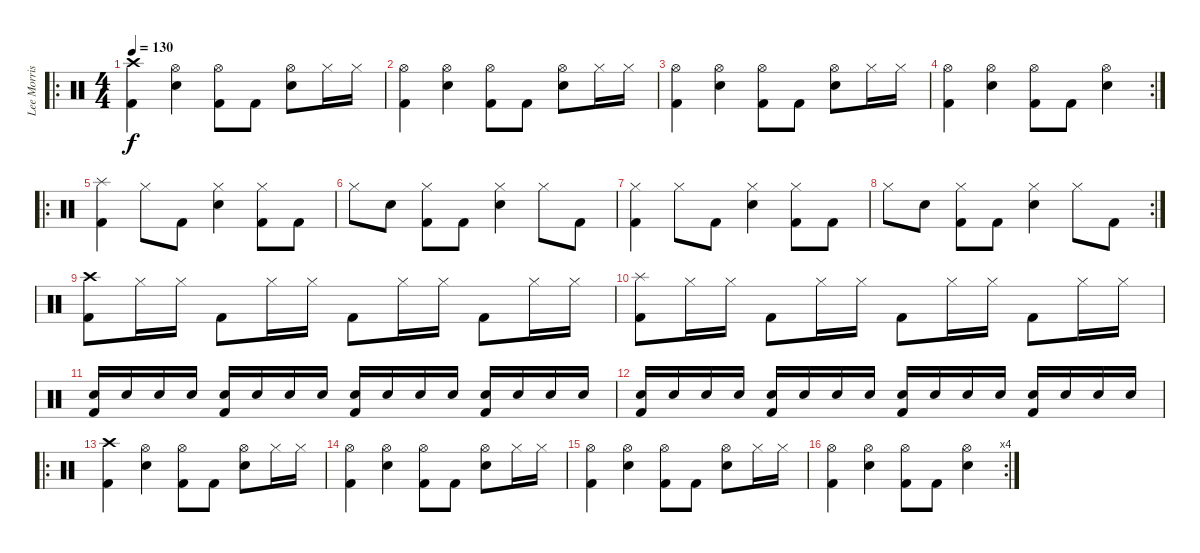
\track ("Lee Morris" "Lee Morris") {instrument percussion}
\staff {score}
\articulation defaults
\ro
\ts (4 4)
\tempo 130
\clef neutral
\ks c
("Crash high (hit)" "Kick (hit) 2").4{dy f} ("Hi-Hat (open)" "Electric Snare (hit)").4 ("Hi-Hat (open)" "Kick (hit) 2").8 "Kick (hit) 2".8 ("Hi-Hat (open)" "Electric Snare (hit)").8 "Hi-Hat (closed)".16 "Hi-Hat (closed)".16 |
("Hi-Hat (open)" "Kick (hit) 2").4 ("Hi-Hat (open)" "Electric Snare (hit)").4 ("Hi-Hat (open)" "Kick (hit) 2").8 "Kick (hit) 2".8 ("Hi-Hat (open)" "Electric Snare (hit)").8 "Hi-Hat (closed)".16 "Hi-Hat (closed)".16 |
("Hi-Hat (open)" "Kick (hit) 2").4 ("Hi-Hat (open)" "Electric Snare (hit)").4 ("Hi-Hat (open)" "Kick (hit) 2").8 "Kick (hit) 2".8 ("Hi-Hat (open)" "Electric Snare (hit)").8 "Hi-Hat (closed)".16 "Hi-Hat (closed)".16 |
\rc 2
("Hi-Hat (open)" "Kick (hit) 2").4 ("Hi-Hat (open)" "Electric Snare (hit)").4 ("Hi-Hat (open)" "Kick (hit) 2").8 "Kick (hit) 2".8 ("Hi-Hat (open)" "Electric Snare (hit)").4 |
\ro
("Splash (hit)" "Kick (hit) 2").4 "Hi-Hat (closed)".8 "Kick (hit) 2".8 ("Hi-Hat (closed)" "Electric Snare (hit)").4 ("Kick (hit) 2" "Hi-Hat (closed)").8 "Kick (hit) 2".8 |
"Hi-Hat (closed)".8 "Electric Snare (hit)".8 ("Hi-Hat (closed)" "Kick (hit) 2").8 "Kick (hit) 2".8 ("Hi-Hat (closed)" "Electric Snare (hit)").4 "Hi-Hat (closed)".8 "Kick (hit) 2".8 |
("Hi-Hat (closed)" "Kick (hit) 2").4 "Hi-Hat (closed)".8 "Kick (hit) 2".8 ("Hi-Hat (closed)" "Electric Snare (hit)").4 ("Kick (hit) 2" "Hi-Hat (closed)").8 "Kick (hit) 2".8 |
\rc 2 "Hi-Hat (closed)".8 "Electric Snare (hit)".8
("Hi-Hat (closed)" "Kick (hit) 2").8 "Kick (hit) 2".8 ("Hi-Hat (closed)" "Electric Snare (hit)").4 "Hi-Hat (closed)".8 "Kick (hit) 2".8 |
("Crash high (hit)" "Kick (hit) 2").8 "Hi-Hat (closed)".16 "Hi-Hat (closed)".16 "Kick (hit) 2".8 "Hi-Hat (closed)".16 "Hi-Hat (closed)".16 "Kick (hit) 2".8 "Hi-Hat (closed)".16 "Hi-Hat (closed)".16 "Kick (hit) 2".8 "Hi-Hat (closed)".16 "Hi-Hat (closed)".16 |
("Splash (hit)" "Kick (hit) 2").8 "Hi-Hat (closed)".16 "Hi-Hat (closed)".16 "Kick (hit) 2".8 "Hi-Hat (closed)".16 "Hi-Hat (closed)".16 "Kick (hit) 2".8 "Hi-Hat (closed)".16 "Hi-Hat (closed)".16 "Kick (hit) 2".8 "Hi-Hat (closed)".16 "Hi-Hat (closed)".16 |
("Kick (hit) 2" "Electric Snare (hit)").16{volume 7} "Electric Snare (hit)".16 "Electric Snare (hit)".16 "Electric Snare (hit)".16 ("Kick (hit) 2" "Electric Snare (hit)").16 "Electric Snare (hit)".16 "Electric Snare (hit)".16 "Electric Snare (hit)".16{volume 10} ("Kick (hit) 2" "Electric Snare (hit)").16 "Electric Snare (hit)".16 "Electric Snare (hit)".16 "Electric Snare (hit)".16 ("Kick (hit) 2" "Electric Snare (hit)").16 "Electric Snare (hit)".16 "Electric Snare (hit)".16 "Electric Snare (hit)".16 |
("Kick (hit) 2" "Electric Snare (hit)").16{volume 13} "Electric Snare (hit)".16 "Electric Snare (hit)".16 "Electric Snare (hit)".16 ("Kick (hit) 2" "Electric Snare (hit)").16 "Electric Snare (hit)".16 "Electric Snare (hit)".16 "Electric Snare (hit)".16 ("Kick (hit) 2" "Electric Snare (hit)").16{volume 16} "Electric Snare (hit)".16 "Electric Snare (hit)".16 "Electric Snare (hit)".16 ("Kick (hit) 2" "Electric Snare (hit)").16 "Electric Snare (hit)".16 "Electric Snare (hit)".16 "Electric Snare (hit)".16 |
\ro
("Crash high (hit)" "Kick (hit) 2").4 ("Hi-Hat (open)" "Electric Snare (hit)").4 ("Hi-Hat (open)" "Kick (hit) 2").8 "Kick (hit) 2".8 ("Hi-Hat (open)" "Electric Snare (hit)").8 "Hi-Hat (closed)".16 "Hi-Hat (closed)".16 |
("Hi-Hat (open)" "Kick (hit) 2").4 ("Hi-Hat (open)" "Electric Snare (hit)").4 ("Hi-Hat (open)" "Kick (hit) 2").8 "Kick (hit) 2".8 ("Hi-Hat (open)" "Electric Snare (hit)").8 "Hi-Hat (closed)".16 "Hi-Hat (closed)".16 |
("Hi-Hat (open)" "Kick (hit) 2").4 ("Hi-Hat (open)" "Electric Snare (hit)").4 ("Hi-Hat (open)" "Kick (hit) 2").8 "Kick (hit) 2".8 ("Hi-Hat (open)" "Electric Snare (hit)").8 "Hi-Hat (closed)".16 "Hi-Hat (closed)".16 |
\rc 4
("Hi-Hat (open)" "Kick (hit) 2").4 ("Hi-Hat (open)" "Electric Snare (hit)").4 ("Hi-Hat (open)" "Kick (hit) 2").8 "Kick (hit) 2".8 ("Hi-Hat (open)" "Electric Snare (hit)").4
